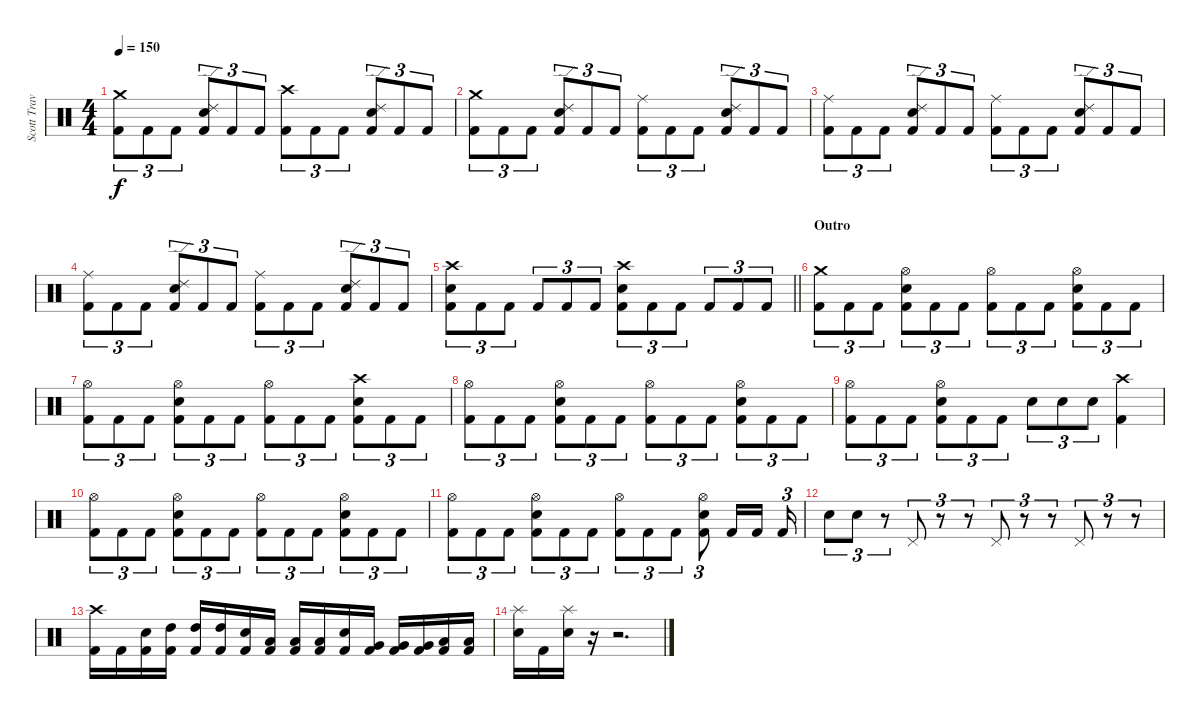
\track ("Scott Travis" "Scott Trav") {instrument percussion}
\staff {score}
\articulation defaults
\ts (4 4)
\tempo 150
\clef neutral
\ks c
("Crash medium (hit)" "Kick (hit) 2").8{tu (3 2) dy f} "Kick (hit) 2".8{tu (3 2)} "Kick (hit) 2".8{tu (3 2)} ("Ride (edge) 2" "Snare (hit) 2" "Kick (hit) 2").8{tu (3 2)} "Kick (hit) 2".8{tu (3 2)} "Kick (hit) 2".8{tu (3 2)} ("Crash high (hit)" "Kick (hit) 2").8{tu (3 2)} "Kick (hit) 2".8{tu (3 2)} "Kick (hit) 2".8{tu (3 2)} ("Ride (edge) 2" "Snare (hit) 2" "Kick (hit) 2").8{tu (3 2)} "Kick (hit) 2".8{tu (3 2)} "Kick (hit) 2".8{tu (3 2)} |
("Crash medium (hit)" "Kick (hit) 2").8{tu (3 2)} "Kick (hit) 2".8{tu (3 2)} "Kick (hit) 2".8{tu (3 2)} ("Ride (edge) 2" "Snare (hit) 2" "Kick (hit) 2").8{tu (3 2)} "Kick (hit) 2".8{tu (3 2)} "Kick (hit) 2".8{tu (3 2)} ("Ride (middle)" "Kick (hit) 2").8{tu (3 2)} "Kick (hit) 2".8{tu (3 2)} "Kick (hit) 2".8{tu (3 2)} ("Ride (edge) 2" "Snare (hit) 2" "Kick (hit) 2").8{tu (3 2)} "Kick (hit) 2".8{tu (3 2)} "Kick (hit) 2".8{tu (3 2)} |
("Ride (middle)" "Kick (hit) 2").8{tu (3 2)} "Kick (hit) 2".8{tu (3 2)} "Kick (hit) 2".8{tu (3 2)} ("Ride (edge) 2" "Snare (hit) 2" "Kick (hit) 2").8{tu (3 2)} "Kick (hit) 2".8{tu (3 2)} "Kick (hit) 2".8{tu (3 2)} ("Ride (middle)" "Kick (hit) 2").8{tu (3 2)} "Kick (hit) 2".8{tu (3 2)} "Kick (hit) 2".8{tu (3 2)} ("Ride (edge) 2" "Snare (hit) 2" "Kick (hit) 2").8{tu (3 2)} "Kick (hit) 2".8{tu (3 2)} "Kick (hit) 2".8{tu (3 2)} |
("Ride (middle)" "Kick (hit) 2").8{tu (3 2)} "Kick (hit) 2".8{tu (3 2)} "Kick (hit) 2".8{tu (3 2)} ("Ride (edge) 2" "Snare (hit) 2" "Kick (hit) 2").8{tu (3 2)} "Kick (hit) 2".8{tu (3 2)} "Kick (hit) 2".8{tu (3 2)} ("Ride (middle)" "Kick (hit) 2").8{tu (3 2)} "Kick (hit) 2".8{tu (3 2)} "Kick (hit) 2".8{tu (3 2)} ("Ride (edge) 2" "Snare (hit) 2" "Kick (hit) 2").8{tu (3 2)} "Kick (hit) 2".8{tu (3 2)} "Kick (hit) 2".8{tu (3 2)} |
\barLineRight lightlight
("Crash high (hit)" "Snare (hit) 2" "Kick (hit) 2").8{tu (3 2)} "Kick (hit) 2".8{tu (3 2)} "Kick (hit) 2".8{tu (3 2)} "Kick (hit) 2".8{tu (3 2)} "Kick (hit) 2".8{tu (3 2)} "Kick (hit) 2".8{tu (3 2)} ("Crash high (hit)" "Snare (hit) 2" "Kick (hit) 2").8{tu (3 2)} "Kick (hit) 2".8{tu (3 2)} "Kick (hit) 2".8{tu (3 2)} "Kick (hit) 2".8{tu (3 2)} "Kick (hit) 2".8{tu (3 2)} "Kick (hit) 2".8{tu (3 2)} |
\section ("" "Outro")
("Crash medium (hit)" "Kick (hit) 2").8{tu (3 2)} "Kick (hit) 2".8{tu (3 2)} "Kick (hit) 2".8{tu (3 2)} ("Hi-Hat (open)" "Snare (hit) 2" "Kick (hit) 2").8{tu (3 2)} "Kick (hit) 2".8{tu (3 2)} "Kick (hit) 2".8{tu (3 2)} ("Hi-Hat (open)" "Kick (hit) 2").8{tu (3 2)} "Kick (hit) 2".8{tu (3 2)} "Kick (hit) 2".8{tu (3 2)} ("Hi-Hat (open)" "Snare (hit) 2" "Kick (hit) 2").8{tu (3 2)} "Kick (hit) 2".8{tu (3 2)} "Kick (hit) 2".8{tu (3 2)} |
("Hi-Hat (open)" "Kick (hit) 2").8{tu (3 2)} "Kick (hit) 2".8{tu (3 2)} "Kick (hit) 2".8{tu (3 2)} ("Hi-Hat (open)" "Snare (hit) 2" "Kick (hit) 2").8{tu (3 2)} "Kick (hit) 2".8{tu (3 2)} "Kick (hit) 2".8{tu (3 2)} ("Hi-Hat (open)" "Kick (hit) 2").8{tu (3 2)} "Kick (hit) 2".8{tu (3 2)} "Kick (hit) 2".8{tu (3 2)} ("Crash high (hit)" "Snare (hit) 2" "Kick (hit) 2").8{tu (3 2)} "Kick (hit) 2".8{tu (3 2)} "Kick (hit) 2".8{tu (3 2)} |
("Hi-Hat (open)" "Kick (hit) 2").8{tu (3 2)} "Kick (hit) 2".8{tu (3 2)} "Kick (hit) 2".8{tu (3 2)} ("Hi-Hat (open)" "Snare (hit) 2" "Kick (hit) 2").8{tu (3 2)} "Kick (hit) 2".8{tu (3 2)} "Kick (hit) 2".8{tu (3 2)} ("Hi-Hat (open)" "Kick (hit) 2").8{tu (3 2)} "Kick (hit) 2".8{tu (3 2)} "Kick (hit) 2".8{tu (3 2)} ("Hi-Hat (open)" "Snare (hit) 2" "Kick (hit) 2").8{tu (3 2)} "Kick (hit) 2".8{tu (3 2)} "Kick (hit) 2".8{tu (3 2)} |
("Hi-Hat (open)" "Kick (hit) 2").8{tu (3 2)} "Kick (hit) 2".8{tu (3 2)} "Kick (hit) 2".8{tu (3 2)} ("Hi-Hat (open)" "Snare (hit) 2" "Kick (hit) 2").8{tu (3 2)} "Kick (hit) 2".8{tu (3 2)} "Kick (hit) 2".8{tu (3 2)} "Snare (hit) 2".8{tu (3 2)} "Snare (hit) 2".8{tu (3 2)} "Snare (hit) 2".8{tu (3 2)} ("Crash high (hit)" "Kick (hit) 2").4 |
("Hi-Hat (open)" "Kick (hit) 2").8{tu (3 2)} "Kick (hit) 2".8{tu (3 2)} "Kick (hit) 2".8{tu (3 2)} ("Hi-Hat (open)" "Snare (hit) 2" "Kick (hit) 2").8{tu (3 2)} "Kick (hit) 2".8{tu (3 2)} "Kick (hit) 2".8{tu (3 2)} ("Hi-Hat (open)" "Kick (hit) 2").8{tu (3 2)} "Kick (hit) 2".8{tu (3 2)} "Kick (hit) 2".8{tu (3 2)} ("Hi-Hat (open)" "Snare (hit) 2" "Kick (hit) 2").8{tu (3 2)} "Kick (hit) 2".8{tu (3 2)} "Kick (hit) 2".8{tu (3 2)} |
("Hi-Hat (open)" "Kick (hit) 2").8{tu (3 2)} "Kick (hit) 2".8{tu (3 2)} "Kick (hit) 2".8{tu (3 2)} ("Hi-Hat (open)" "Snare (hit) 2" "Kick (hit) 2").8{tu (3 2)} "Kick (hit) 2".8{tu (3 2)} "Kick (hit) 2".8{tu (3 2)} ("Hi-Hat (open)" "Kick (hit) 2").8{tu (3 2)} "Kick (hit) 2".8{tu (3 2)} "Kick (hit) 2".8{tu (3 2)} ("Hi-Hat (open)" "Snare (hit) 2" "Kick (hit) 2").8{tu (3 2)} "Kick (hit) 2".16 "Kick (hit) 2".16{beam splitsecondary} "Kick (hit) 2".16{tu (3 2)} |
"Snare (hit) 2".8{tu (3 2)} "Snare (hit) 2".8{tu (3 2)} r.8{tu (3 2)} "Pedal Hi-Hat (hit)".8{tu (3 2)} r.8{tu (3 2)} r.8{tu (3 2)} "Pedal Hi-Hat (hit)".8{tu (3 2)} r.8{tu (3 2)} r.8{tu (3 2)} "Pedal Hi-Hat (hit)".8{tu (3 2)} r.8{tu (3 2)} r.8{tu (3 2)} |
("Crash high (hit)" "Kick (hit) 2").16 "Kick (hit) 2".16 ("Snare (hit) 2" "Kick (hit) 2").16 ("High Tom (hit)" "Kick (hit) 2").16 ("High Tom (hit)" "Kick (hit) 2").16 ("High Tom (hit)" "Kick (hit) 2").16 ("Snare (hit) 2" "Kick (hit) 2").16 ("Low Tom (hit)" "Kick (hit) 2").16 ("Low Tom (hit)" "Kick (hit) 2").16 ("Low Tom (hit)" "Kick (hit) 2").16 ("Snare (hit) 2" "Kick (hit) 2").16 ("Very Low Tom (hit)" "Kick (hit) 2").16 ("Very Low Tom (hit)" "Kick (hit) 2").16 ("Very Low Tom (hit)" "Kick (hit) 2").16 ("Low Floor Tom (hit)" "Kick (hit) 2").16 ("Low Floor Tom (hit)" "Kick (hit) 2").16 |
("Splash (hit)" "Snare (hit) 2").16 "Kick (hit) 2".16 ("Splash (hit)" "Snare (hit) 2").16 r.16 r.2{d}
